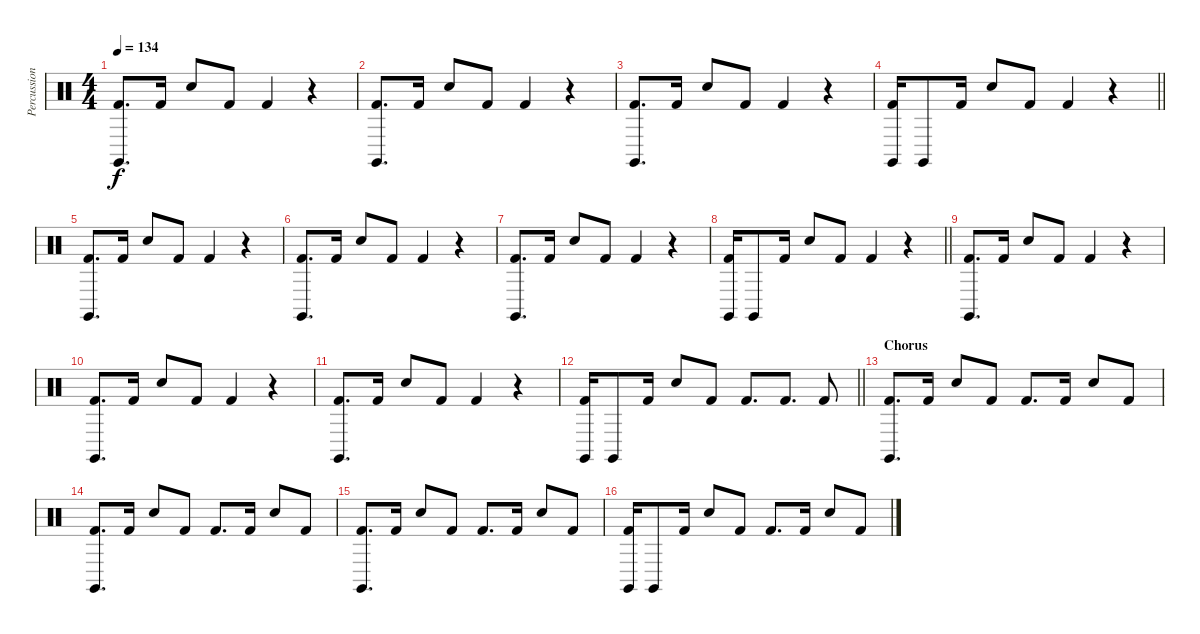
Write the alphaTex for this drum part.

\track ("Percussion" "Percussion") {instrument percussion}
\staff {score}
\articulation defaults
\ts (4 4)
\tempo 134
\clef neutral
\ks c
("Claves (hit)" "Kick (hit) 2").8{d dy f} "Kick (hit) 2".16 "Snare (hit) 2".8 "Kick (hit) 2".8 "Kick (hit) 2".4 r.4 |
("Claves (hit)" "Kick (hit) 2").8{d} "Kick (hit) 2".16 "Snare (hit) 2".8 "Kick (hit) 2".8 "Kick (hit) 2".4 r.4 |
("Claves (hit)" "Kick (hit) 2").8{d} "Kick (hit) 2".16 "Snare (hit) 2".8 "Kick (hit) 2".8 "Kick (hit) 2".4 r.4 |
\barLineRight lightlight
("Claves (hit)" "Kick (hit) 2").16 "Claves (hit)".8 "Kick (hit) 2".16 "Snare (hit) 2".8 "Kick (hit) 2".8 "Kick (hit) 2".4 r.4 |
("Claves (hit)" "Kick (hit) 2").8{d} "Kick (hit) 2".16 "Snare (hit) 2".8 "Kick (hit) 2".8 "Kick (hit) 2".4 r.4 |
("Claves (hit)" "Kick (hit) 2").8{d} "Kick (hit) 2".16 "Snare (hit) 2".8 "Kick (hit) 2".8 "Kick (hit) 2".4 r.4 |
("Claves (hit)" "Kick (hit) 2").8{d} "Kick (hit) 2".16 "Snare (hit) 2".8 "Kick (hit) 2".8 "Kick (hit) 2".4 r.4 |
\barLineRight lightlight
("Claves (hit)" "Kick (hit) 2").16 "Claves (hit)".8 "Kick (hit) 2".16 "Snare (hit) 2".8 "Kick (hit) 2".8 "Kick (hit) 2".4 r.4 |
("Claves (hit)" "Kick (hit) 2").8{d} "Kick (hit) 2".16 "Snare (hit) 2".8 "Kick (hit) 2".8 "Kick (hit) 2".4 r.4 |
("Claves (hit)" "Kick (hit) 2").8{d} "Kick (hit) 2".16 "Snare (hit) 2".8 "Kick (hit) 2".8 "Kick (hit) 2".4 r.4 |
("Claves (hit)" "Kick (hit) 2").8{d} "Kick (hit) 2".16 "Snare (hit) 2".8 "Kick (hit) 2".8 "Kick (hit) 2".4 r.4 |
\barLineRight lightlight
("Claves (hit)" "Kick (hit) 2").16 "Claves (hit)".8 "Kick (hit) 2".16 "Snare (hit) 2".8 "Kick (hit) 2".8 "Kick (hit) 2".8{d} "Kick (hit) 2".8{d} "Kick (hit) 2".8 |
\section ("" "Chorus")
("Claves (hit)" "Kick (hit) 2").8{d} "Kick (hit) 2".16 "Snare (hit) 2".8 "Kick (hit) 2".8 "Kick (hit) 2".8{d} "Kick (hit) 2".16 "Snare (hit) 2".8 "Kick (hit) 2".8 |
("Claves (hit)" "Kick (hit) 2").8{d} "Kick (hit) 2".16 "Snare (hit) 2".8 "Kick (hit) 2".8 "Kick (hit) 2".8{d} "Kick (hit) 2".16 "Snare (hit) 2".8 "Kick (hit) 2".8 |
("Claves (hit)" "Kick (hit) 2").8{d} "Kick (hit) 2".16 "Snare (hit) 2".8 "Kick (hit) 2".8 "Kick (hit) 2".8{d} "Kick (hit) 2".16 "Snare (hit) 2".8 "Kick (hit) 2".8 |
("Claves (hit)" "Kick (hit) 2").16 "Claves (hit)".8 "Kick (hit) 2".16 "Snare (hit) 2".8 "Kick (hit) 2".8 "Kick (hit) 2".8{d} "Kick (hit) 2".16 "Snare (hit) 2".8 "Kick (hit) 2".8
